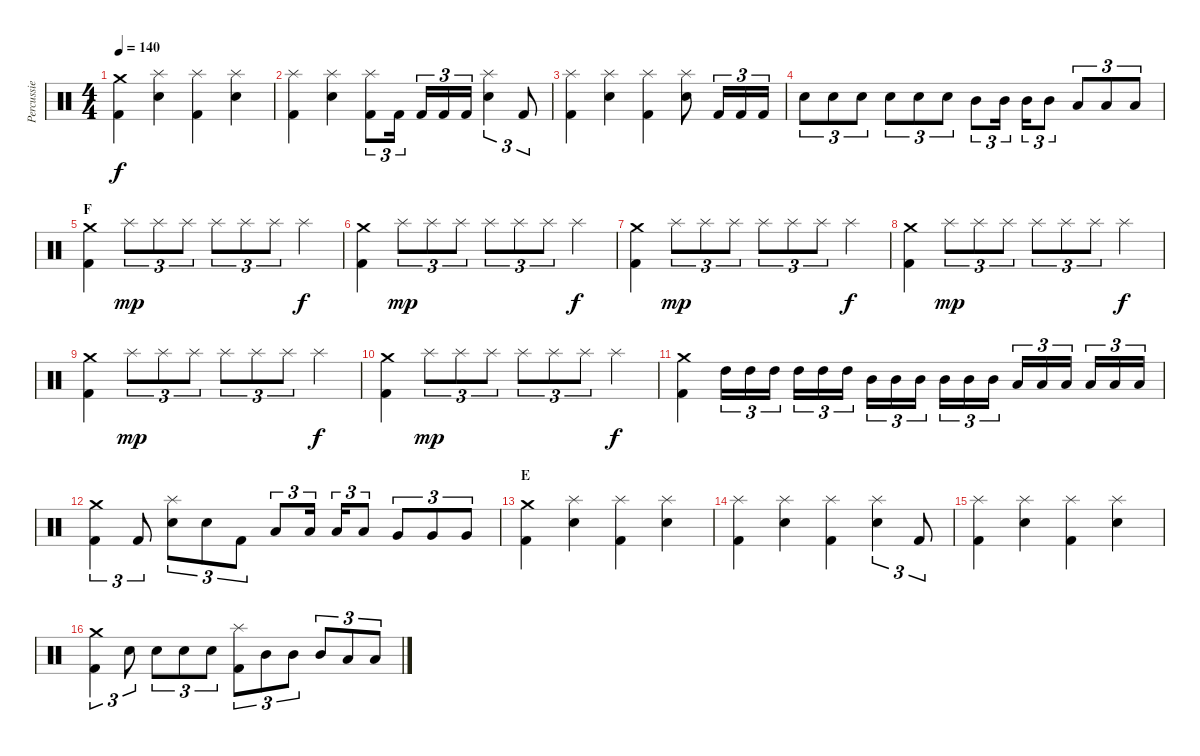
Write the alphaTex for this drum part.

\track ("Percussie" "Percussie") {instrument percussion}
\staff {score}
\articulation defaults
\ts (4 4)
\tempo 140
\clef neutral
\ks c
("Crash medium (hit)" "Kick (hit) 2").4{dy f} ("Splash (hit)" "Electric Snare (hit)").4 ("Splash (hit)" "Kick (hit) 2").4 ("Splash (hit)" "Electric Snare (hit)").4 |
("Splash (hit)" "Kick (hit) 2").4 ("Splash (hit)" "Electric Snare (hit)").4 ("Splash (hit)" "Kick (hit) 2").8{tu (3 2)} "Kick (hit) 2".16{tu (3 2)} "Kick (hit) 2".16{tu (3 2)} "Kick (hit) 2".16{tu (3 2)} "Kick (hit) 2".16{tu (3 2)} ("Splash (hit)" "Electric Snare (hit)").4{tu (3 2)} "Kick (hit) 2".8{tu (3 2)} |
("Splash (hit)" "Kick (hit) 2").4 ("Splash (hit)" "Electric Snare (hit)").4 ("Splash (hit)" "Kick (hit) 2").4 ("Splash (hit)" "Electric Snare (hit)").8 "Kick (hit) 2".16{tu (3 2)} "Kick (hit) 2".16{tu (3 2)} "Kick (hit) 2".16{tu (3 2)} |
"Electric Snare (hit)".8{tu (3 2)} "Electric Snare (hit)".8{tu (3 2)} "Electric Snare (hit)".8{tu (3 2)} "Electric Snare (hit)".8{tu (3 2)} "Electric Snare (hit)".8{tu (3 2)} "Electric Snare (hit)".8{tu (3 2)} "Mid Tom (hit)".8{tu (3 2)} "Mid Tom (hit)".16{tu (3 2)} "Mid Tom (hit)".16{tu (3 2)} "Mid Tom (hit)".8{tu (3 2)} "Low Tom (hit)".8{tu (3 2)} "Low Tom (hit)".8{tu (3 2)} "Low Tom (hit)".8{tu (3 2)} |
\section ("" "F")
("Crash medium (hit)" "Kick (hit) 2").4 "Splash (hit)".8{tu (3 2) dy mp} "Splash (hit)".8{tu (3 2)} "Splash (hit)".8{tu (3 2)} "Splash (hit)".8{tu (3 2)} "Splash (hit)".8{tu (3 2)} "Splash (hit)".8{tu (3 2)} "Splash (hit)".4{dy f} |
("Crash medium (hit)" "Kick (hit) 2").4 "Splash (hit)".8{tu (3 2) dy mp} "Splash (hit)".8{tu (3 2)} "Splash (hit)".8{tu (3 2)} "Splash (hit)".8{tu (3 2)} "Splash (hit)".8{tu (3 2)} "Splash (hit)".8{tu (3 2)} "Splash (hit)".4{dy f} |
("Crash medium (hit)" "Kick (hit) 2").4 "Splash (hit)".8{tu (3 2) dy mp} "Splash (hit)".8{tu (3 2)} "Splash (hit)".8{tu (3 2)} "Splash (hit)".8{tu (3 2)} "Splash (hit)".8{tu (3 2)} "Splash (hit)".8{tu (3 2)} "Splash (hit)".4{dy f} |
("Crash medium (hit)" "Kick (hit) 2").4 "Splash (hit)".8{tu (3 2) dy mp} "Splash (hit)".8{tu (3 2)} "Splash (hit)".8{tu (3 2)} "Splash (hit)".8{tu (3 2)} "Splash (hit)".8{tu (3 2)} "Splash (hit)".8{tu (3 2)} "Splash (hit)".4{dy f} |
("Crash medium (hit)" "Kick (hit) 2").4 "Splash (hit)".8{tu (3 2) dy mp} "Splash (hit)".8{tu (3 2)} "Splash (hit)".8{tu (3 2)} "Splash (hit)".8{tu (3 2)} "Splash (hit)".8{tu (3 2)} "Splash (hit)".8{tu (3 2)} "Splash (hit)".4{dy f} |
("Crash medium (hit)" "Kick (hit) 2").4 "Splash (hit)".8{tu (3 2) dy mp} "Splash (hit)".8{tu (3 2)} "Splash (hit)".8{tu (3 2)} "Splash (hit)".8{tu (3 2)} "Splash (hit)".8{tu (3 2)} "Splash (hit)".8{tu (3 2)} "Splash (hit)".4{dy f} |
("Crash medium (hit)" "Kick (hit) 2").4 "High Tom (hit)".16{tu (3 2)} "High Tom (hit)".16{tu (3 2)} "High Tom (hit)".16{tu (3 2)} "High Tom (hit)".16{tu (3 2)} "High Tom (hit)".16{tu (3 2)} "High Tom (hit)".16{tu (3 2)} "Mid Tom (hit)".16{tu (3 2)} "Mid Tom (hit)".16{tu (3 2)} "Mid Tom (hit)".16{tu (3 2)} "Mid Tom (hit)".16{tu (3 2)} "Mid Tom (hit)".16{tu (3 2)} "Mid Tom (hit)".16{tu (3 2)} "Low Tom (hit)".16{tu (3 2)} "Low Tom (hit)".16{tu (3 2)} "Low Tom (hit)".16{tu (3 2)} "Low Tom (hit)".16{tu (3 2)} "Low Tom (hit)".16{tu (3 2)} "Low Tom (hit)".16{tu (3 2)} |
("Crash medium (hit)" "Kick (hit) 2").4{tu (3 2)} "Kick (hit) 2".8{tu (3 2)} ("Splash (hit)" "Electric Snare (hit)").8{tu (3 2)} "Electric Snare (hit)".8{tu (3 2)} "Kick (hit) 2".8{tu (3 2)} "Low Tom (hit)".8{tu (3 2)} "Low Tom (hit)".16{tu (3 2)} "Low Tom (hit)".16{tu (3 2)} "Low Tom (hit)".8{tu (3 2)} "Very Low Tom (hit)".8{tu (3 2)} "Very Low Tom (hit)".8{tu (3 2)} "Very Low Tom (hit)".8{tu (3 2)} |
\section ("" "E")
("Crash medium (hit)" "Kick (hit) 2").4 ("Splash (hit)" "Electric Snare (hit)").4 ("Splash (hit)" "Kick (hit) 2").4 ("Splash (hit)" "Electric Snare (hit)").4 |
("Splash (hit)" "Kick (hit) 2").4 ("Splash (hit)" "Electric Snare (hit)").4 ("Splash (hit)" "Kick (hit) 2").4 ("Splash (hit)" "Electric Snare (hit)").4{tu (3 2)} "Kick (hit) 2".8{tu (3 2)} |
("Splash (hit)" "Kick (hit) 2").4 ("Splash (hit)" "Electric Snare (hit)").4 ("Splash (hit)" "Kick (hit) 2").4 ("Splash (hit)" "Electric Snare (hit)").4 |
("Crash medium (hit)" "Kick (hit) 2").4{tu (3 2)} "Electric Snare (hit)".8{tu (3 2)} "Electric Snare (hit)".8{tu (3 2)} "Electric Snare (hit)".8{tu (3 2)} "Electric Snare (hit)".8{tu (3 2)} ("Splash (hit)" "Kick (hit) 2").8{tu (3 2)} "Mid Tom (hit)".8{tu (3 2)} "Mid Tom (hit)".8{tu (3 2)} "Mid Tom (hit)".8{tu (3 2)} "Low Tom (hit)".8{tu (3 2)} "Low Tom (hit)".8{tu (3 2)}
